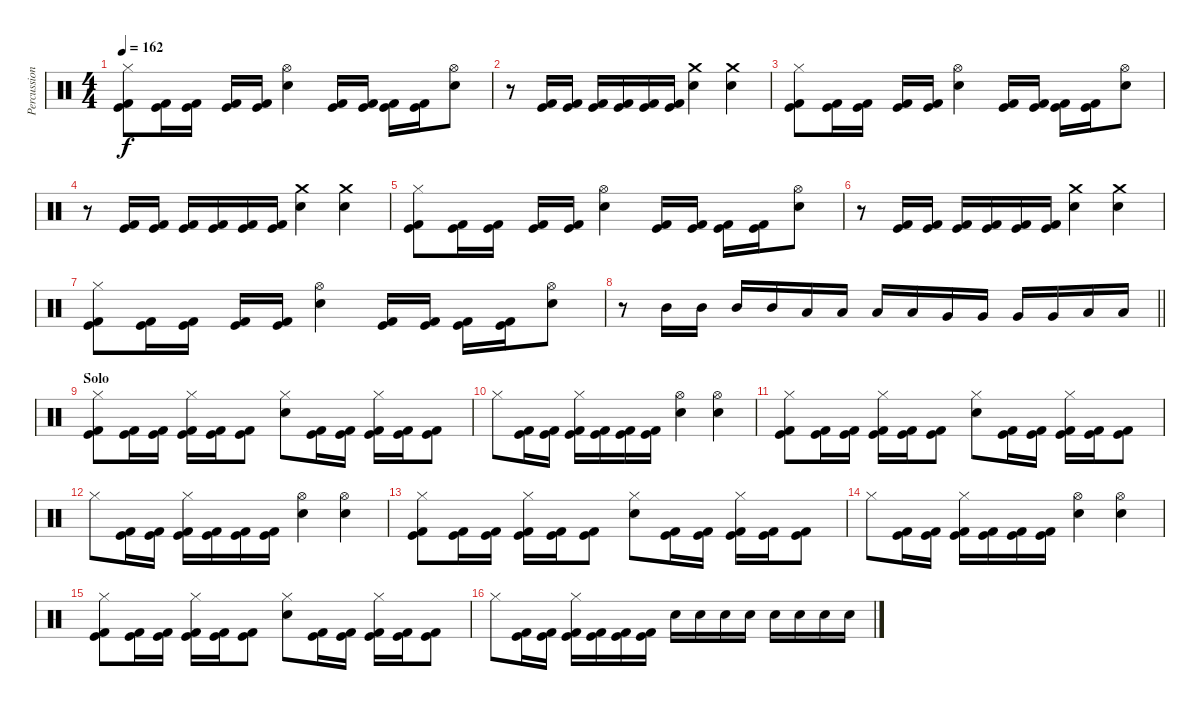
\track ("Percussion" "Percussion") {instrument percussion}
\staff {score}
\articulation defaults
\ts (4 4)
\section ("" "")
\tempo 162
\clef neutral
\ks c
("Hi-Hat (closed)" "Kick (hit)" "Kick (hit) 2").8{dy f} ("Kick (hit)" "Kick (hit) 2").16 ("Kick (hit)" "Kick (hit) 2").16 ("Kick (hit)" "Kick (hit) 2").16 ("Kick (hit)" "Kick (hit) 2").16 ("Hi-Hat (open)" "Electric Snare (hit)").4 ("Kick (hit)" "Kick (hit) 2").16 ("Kick (hit)" "Kick (hit) 2").16 ("Kick (hit)" "Kick (hit) 2").16 ("Kick (hit)" "Kick (hit) 2").16 ("Hi-Hat (open)" "Electric Snare (hit)").8 |
r.8 ("Kick (hit)" "Kick (hit) 2").16 ("Kick (hit)" "Kick (hit) 2").16 ("Kick (hit)" "Kick (hit) 2").16 ("Kick (hit)" "Kick (hit) 2").16 ("Kick (hit)" "Kick (hit) 2").16 ("Kick (hit)" "Kick (hit) 2").16 ("Crash medium (hit)" "Electric Snare (hit)").4 ("Crash medium (hit)" "Electric Snare (hit)").4 |
("Hi-Hat (closed)" "Kick (hit)" "Kick (hit) 2").8 ("Kick (hit)" "Kick (hit) 2").16 ("Kick (hit)" "Kick (hit) 2").16 ("Kick (hit)" "Kick (hit) 2").16 ("Kick (hit)" "Kick (hit) 2").16 ("Hi-Hat (open)" "Electric Snare (hit)").4 ("Kick (hit)" "Kick (hit) 2").16 ("Kick (hit)" "Kick (hit) 2").16 ("Kick (hit)" "Kick (hit) 2").16 ("Kick (hit)" "Kick (hit) 2").16 ("Hi-Hat (open)" "Electric Snare (hit)").8 |
r.8 ("Kick (hit)" "Kick (hit) 2").16 ("Kick (hit)" "Kick (hit) 2").16 ("Kick (hit)" "Kick (hit) 2").16 ("Kick (hit)" "Kick (hit) 2").16 ("Kick (hit)" "Kick (hit) 2").16 ("Kick (hit)" "Kick (hit) 2").16 ("Crash medium (hit)" "Electric Snare (hit)").4 ("Crash medium (hit)" "Electric Snare (hit)").4 |
("Hi-Hat (closed)" "Kick (hit)" "Kick (hit) 2").8 ("Kick (hit)" "Kick (hit) 2").16 ("Kick (hit)" "Kick (hit) 2").16 ("Kick (hit)" "Kick (hit) 2").16 ("Kick (hit)" "Kick (hit) 2").16 ("Hi-Hat (open)" "Electric Snare (hit)").4 ("Kick (hit)" "Kick (hit) 2").16 ("Kick (hit)" "Kick (hit) 2").16 ("Kick (hit)" "Kick (hit) 2").16 ("Kick (hit)" "Kick (hit) 2").16 ("Hi-Hat (open)" "Electric Snare (hit)").8 |
r.8 ("Kick (hit)" "Kick (hit) 2").16 ("Kick (hit)" "Kick (hit) 2").16 ("Kick (hit)" "Kick (hit) 2").16 ("Kick (hit)" "Kick (hit) 2").16 ("Kick (hit)" "Kick (hit) 2").16 ("Kick (hit)" "Kick (hit) 2").16 ("Crash medium (hit)" "Electric Snare (hit)").4 ("Crash medium (hit)" "Electric Snare (hit)").4 |
("Hi-Hat (closed)" "Kick (hit)" "Kick (hit) 2").8 ("Kick (hit)" "Kick (hit) 2").16 ("Kick (hit)" "Kick (hit) 2").16 ("Kick (hit)" "Kick (hit) 2").16 ("Kick (hit)" "Kick (hit) 2").16 ("Hi-Hat (open)" "Electric Snare (hit)").4 ("Kick (hit)" "Kick (hit) 2").16 ("Kick (hit)" "Kick (hit) 2").16 ("Kick (hit)" "Kick (hit) 2").16 ("Kick (hit)" "Kick (hit) 2").16 ("Hi-Hat (open)" "Electric Snare (hit)").8 |
\barLineRight lightlight
r.8 "Mid Tom (hit)".16 "Mid Tom (hit)".16 "Mid Tom (hit)".16 "Mid Tom (hit)".16 "Low Tom (hit)".16 "Low Tom (hit)".16 "Low Tom (hit)".16 "Low Tom (hit)".16 "Very Low Tom (hit)".16 "Very Low Tom (hit)".16 "Very Low Tom (hit)".16 "Very Low Tom (hit)".16 "Low Floor Tom (hit)".16 "Low Floor Tom (hit)".16 |
\section ("" "Solo")
("Hi-Hat (closed)" "Kick (hit)" "Kick (hit) 2").8 ("Kick (hit)" "Kick (hit) 2").16 ("Kick (hit)" "Kick (hit) 2").16 ("Hi-Hat (closed)" "Kick (hit)" "Kick (hit) 2").16 ("Kick (hit)" "Kick (hit) 2").16 ("Kick (hit)" "Kick (hit) 2").8 ("Hi-Hat (closed)" "Electric Snare (hit)").8 ("Kick (hit)" "Kick (hit) 2").16 ("Kick (hit)" "Kick (hit) 2").16 ("Hi-Hat (closed)" "Kick (hit)" "Kick (hit) 2").16 ("Kick (hit)" "Kick (hit) 2").16 ("Kick (hit)" "Kick (hit) 2").8 |
"Hi-Hat (closed)".8 ("Kick (hit)" "Kick (hit) 2").16 ("Kick (hit)" "Kick (hit) 2").16 ("Hi-Hat (closed)" "Kick (hit)" "Kick (hit) 2").16 ("Kick (hit)" "Kick (hit) 2").16 ("Kick (hit)" "Kick (hit) 2").16 ("Kick (hit)" "Kick (hit) 2").16 ("Hi-Hat (open)" "Electric Snare (hit)").4 ("Hi-Hat (open)" "Electric Snare (hit)").4 |
("Hi-Hat (closed)" "Kick (hit)" "Kick (hit) 2").8 ("Kick (hit)" "Kick (hit) 2").16 ("Kick (hit)" "Kick (hit) 2").16 ("Hi-Hat (closed)" "Kick (hit)" "Kick (hit) 2").16 ("Kick (hit)" "Kick (hit) 2").16 ("Kick (hit)" "Kick (hit) 2").8 ("Hi-Hat (closed)" "Electric Snare (hit)").8 ("Kick (hit)" "Kick (hit) 2").16 ("Kick (hit)" "Kick (hit) 2").16 ("Hi-Hat (closed)" "Kick (hit)" "Kick (hit) 2").16 ("Kick (hit)" "Kick (hit) 2").16 ("Kick (hit)" "Kick (hit) 2").8 |
"Hi-Hat (closed)".8 ("Kick (hit)" "Kick (hit) 2").16 ("Kick (hit)" "Kick (hit) 2").16 ("Hi-Hat (closed)" "Kick (hit)" "Kick (hit) 2").16 ("Kick (hit)" "Kick (hit) 2").16 ("Kick (hit)" "Kick (hit) 2").16 ("Kick (hit)" "Kick (hit) 2").16 ("Hi-Hat (open)" "Electric Snare (hit)").4 ("Hi-Hat (open)" "Electric Snare (hit)").4 |
("Hi-Hat (closed)" "Kick (hit)" "Kick (hit) 2").8 ("Kick (hit)" "Kick (hit) 2").16 ("Kick (hit)" "Kick (hit) 2").16 ("Hi-Hat (closed)" "Kick (hit)" "Kick (hit) 2").16 ("Kick (hit)" "Kick (hit) 2").16 ("Kick (hit)" "Kick (hit) 2").8 ("Hi-Hat (closed)" "Electric Snare (hit)").8 ("Kick (hit)" "Kick (hit) 2").16 ("Kick (hit)" "Kick (hit) 2").16 ("Hi-Hat (closed)" "Kick (hit)" "Kick (hit) 2").16 ("Kick (hit)" "Kick (hit) 2").16 ("Kick (hit)" "Kick (hit) 2").8 |
"Hi-Hat (closed)".8 ("Kick (hit)" "Kick (hit) 2").16 ("Kick (hit)" "Kick (hit) 2").16 ("Hi-Hat (closed)" "Kick (hit)" "Kick (hit) 2").16 ("Kick (hit)" "Kick (hit) 2").16 ("Kick (hit)" "Kick (hit) 2").16 ("Kick (hit)" "Kick (hit) 2").16 ("Hi-Hat (open)" "Electric Snare (hit)").4 ("Hi-Hat (open)" "Electric Snare (hit)").4 |
("Hi-Hat (closed)" "Kick (hit)" "Kick (hit) 2").8 ("Kick (hit)" "Kick (hit) 2").16 ("Kick (hit)" "Kick (hit) 2").16 ("Hi-Hat (closed)" "Kick (hit)" "Kick (hit) 2").16 ("Kick (hit)" "Kick (hit) 2").16 ("Kick (hit)" "Kick (hit) 2").8 ("Hi-Hat (closed)" "Electric Snare (hit)").8 ("Kick (hit)" "Kick (hit) 2").16 ("Kick (hit)" "Kick (hit) 2").16 ("Hi-Hat (closed)" "Kick (hit)" "Kick (hit) 2").16 ("Kick (hit)" "Kick (hit) 2").16 ("Kick (hit)" "Kick (hit) 2").8 |
"Hi-Hat (closed)".8 ("Kick (hit)" "Kick (hit) 2").16 ("Kick (hit)" "Kick (hit) 2").16 ("Hi-Hat (closed)" "Kick (hit)" "Kick (hit) 2").16 ("Kick (hit)" "Kick (hit) 2").16 ("Kick (hit)" "Kick (hit) 2").16 ("Kick (hit)" "Kick (hit) 2").16 "Electric Snare (hit)".16 "Electric Snare (hit)".16 "Electric Snare (hit)".16 "Electric Snare (hit)".16 "Electric Snare (hit)".16 "Electric Snare (hit)".16 "Electric Snare (hit)".16 "Electric Snare (hit)".16
